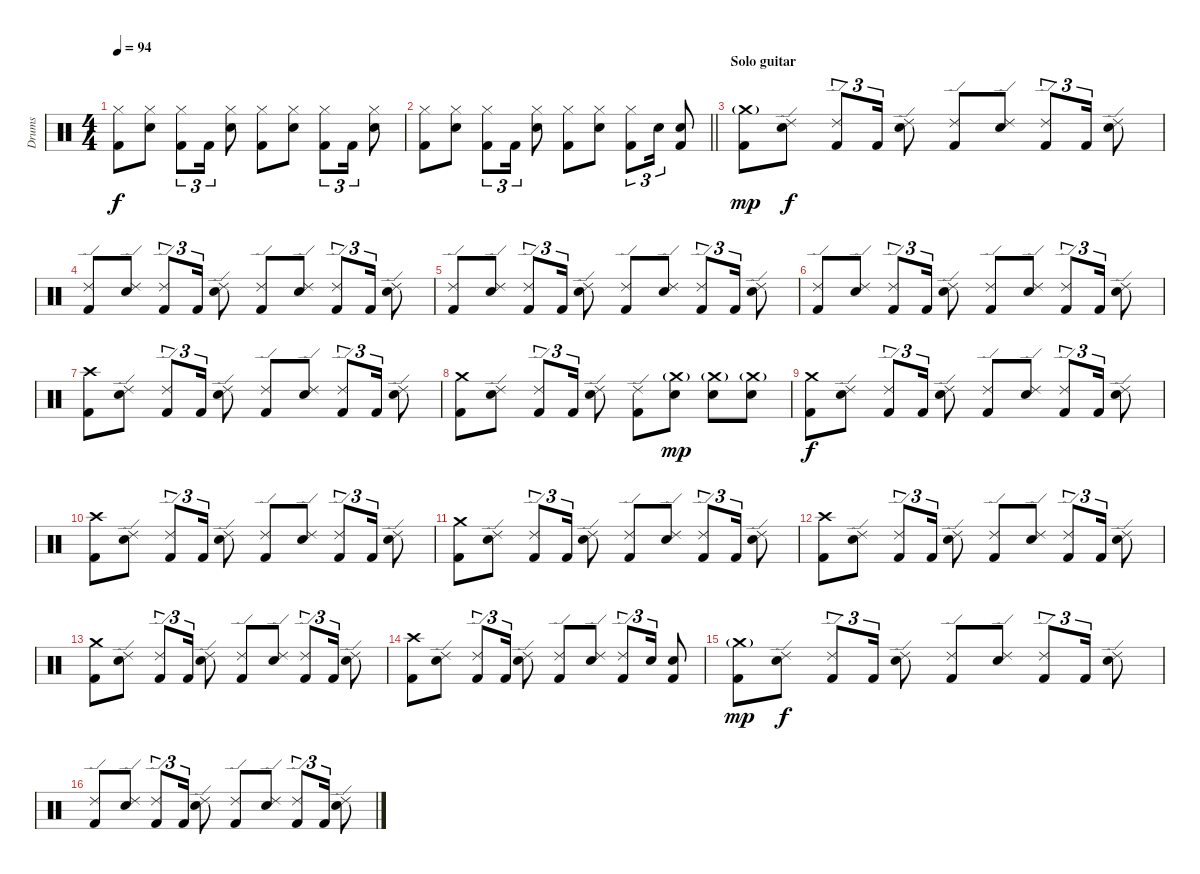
\track ("Drums" "Drums") {instrument percussion}
\staff {score}
\articulation defaults
\ts (4 4)
\tempo 94
\clef neutral
\ks c
("Hi-Hat (closed)" "Kick (hit) 2").8{dy f} ("Hi-Hat (closed)" "Electric Snare (hit)").8 ("Hi-Hat (closed)" "Kick (hit) 2").8{tu (3 2)} "Kick (hit) 2".16{tu (3 2)} ("Hi-Hat (closed)" "Electric Snare (hit)").8 ("Hi-Hat (closed)" "Kick (hit) 2").8 ("Hi-Hat (closed)" "Electric Snare (hit)").8 ("Hi-Hat (closed)" "Kick (hit) 2").8{tu (3 2)} "Kick (hit) 2".16{tu (3 2)} ("Hi-Hat (closed)" "Electric Snare (hit)").8 |
\barLineRight lightlight
("Hi-Hat (closed)" "Kick (hit) 2").8 ("Hi-Hat (closed)" "Electric Snare (hit)").8 ("Hi-Hat (closed)" "Kick (hit) 2").8{tu (3 2)} "Kick (hit) 2".16{tu (3 2)} ("Hi-Hat (closed)" "Electric Snare (hit)").8 ("Hi-Hat (closed)" "Kick (hit) 2").8 ("Hi-Hat (closed)" "Electric Snare (hit)").8 ("Hi-Hat (closed)" "Kick (hit) 2").8{tu (3 2)} "Electric Snare (hit)".16{tu (3 2)} ("Electric Snare (hit)" "Kick (hit) 2").8 |
\section ("" "Solo guitar")
("Crash medium (hit)"{g} "Kick (hit) 2").8{dy mp} ("Ride (edge) 2" "Electric Snare (hit)").8{dy f} ("Ride (edge) 2" "Kick (hit) 2").8{tu (3 2)} "Kick (hit) 2".16{tu (3 2)} ("Ride (edge) 2" "Electric Snare (hit)").8 ("Ride (edge) 2" "Kick (hit) 2").8 ("Ride (edge) 2" "Electric Snare (hit)").8 ("Ride (edge) 2" "Kick (hit) 2").8{tu (3 2)} "Kick (hit) 2".16{tu (3 2)} ("Ride (edge) 2" "Electric Snare (hit)").8 |
("Ride (edge) 2" "Kick (hit) 2").8 ("Ride (edge) 2" "Electric Snare (hit)").8 ("Ride (edge) 2" "Kick (hit) 2").8{tu (3 2)} "Kick (hit) 2".16{tu (3 2)} ("Ride (edge) 2" "Electric Snare (hit)").8 ("Ride (edge) 2" "Kick (hit) 2").8 ("Ride (edge) 2" "Electric Snare (hit)").8 ("Ride (edge) 2" "Kick (hit) 2").8{tu (3 2)} "Kick (hit) 2".16{tu (3 2)} ("Ride (edge) 2" "Electric Snare (hit)").8 |
("Ride (edge) 2" "Kick (hit) 2").8 ("Ride (edge) 2" "Electric Snare (hit)").8 ("Ride (edge) 2" "Kick (hit) 2").8{tu (3 2)} "Kick (hit) 2".16{tu (3 2)} ("Ride (edge) 2" "Electric Snare (hit)").8 ("Ride (edge) 2" "Kick (hit) 2").8 ("Ride (edge) 2" "Electric Snare (hit)").8 ("Ride (edge) 2" "Kick (hit) 2").8{tu (3 2)} "Kick (hit) 2".16{tu (3 2)} ("Ride (edge) 2" "Electric Snare (hit)").8 |
("Ride (edge) 2" "Kick (hit) 2").8 ("Ride (edge) 2" "Electric Snare (hit)").8 ("Ride (edge) 2" "Kick (hit) 2").8{tu (3 2)} "Kick (hit) 2".16{tu (3 2)} ("Ride (edge) 2" "Electric Snare (hit)").8 ("Ride (edge) 2" "Kick (hit) 2").8 ("Ride (edge) 2" "Electric Snare (hit)").8 ("Ride (edge) 2" "Kick (hit) 2").8{tu (3 2)} "Kick (hit) 2".16{tu (3 2)} ("Ride (edge) 2" "Electric Snare (hit)").8 |
("Crash high (hit)" "Kick (hit) 2").8 ("Ride (edge) 2" "Electric Snare (hit)").8 ("Ride (edge) 2" "Kick (hit) 2").8{tu (3 2)} "Kick (hit) 2".16{tu (3 2)} ("Ride (edge) 2" "Electric Snare (hit)").8 ("Ride (edge) 2" "Kick (hit) 2").8 ("Ride (edge) 2" "Electric Snare (hit)").8 ("Ride (edge) 2" "Kick (hit) 2").8{tu (3 2)} "Kick (hit) 2".16{tu (3 2)} ("Ride (edge) 2" "Electric Snare (hit)").8 |
("Crash medium (hit)" "Kick (hit) 2").8 ("Ride (edge) 2" "Electric Snare (hit)").8 ("Ride (edge) 2" "Kick (hit) 2").8{tu (3 2)} "Kick (hit) 2".16{tu (3 2)} ("Ride (edge) 2" "Electric Snare (hit)").8 ("Ride (edge) 2" "Kick (hit) 2").8 ("Crash medium (hit)"{g} "Electric Snare (hit)").8{dy mp} ("Crash medium (hit)"{g} "Electric Snare (hit)").8 ("Crash medium (hit)"{g} "Electric Snare (hit)").8 |
("Crash medium (hit)" "Kick (hit) 2").8{dy f} ("Ride (edge) 2" "Electric Snare (hit)").8 ("Ride (edge) 2" "Kick (hit) 2").8{tu (3 2)} "Kick (hit) 2".16{tu (3 2)} ("Ride (edge) 2" "Electric Snare (hit)").8 ("Ride (edge) 2" "Kick (hit) 2").8 ("Ride (edge) 2" "Electric Snare (hit)").8 ("Ride (edge) 2" "Kick (hit) 2").8{tu (3 2)} "Kick (hit) 2".16{tu (3 2)} ("Ride (edge) 2" "Electric Snare (hit)").8 |
("Crash high (hit)" "Kick (hit) 2").8 ("Ride (edge) 2" "Electric Snare (hit)").8 ("Ride (edge) 2" "Kick (hit) 2").8{tu (3 2)} "Kick (hit) 2".16{tu (3 2)} ("Ride (edge) 2" "Electric Snare (hit)").8 ("Ride (edge) 2" "Kick (hit) 2").8 ("Ride (edge) 2" "Electric Snare (hit)").8 ("Ride (edge) 2" "Kick (hit) 2").8{tu (3 2)} "Kick (hit) 2".16{tu (3 2)} ("Ride (edge) 2" "Electric Snare (hit)").8 |
("Crash medium (hit)" "Kick (hit) 2").8 ("Ride (edge) 2" "Electric Snare (hit)").8 ("Ride (edge) 2" "Kick (hit) 2").8{tu (3 2)} "Kick (hit) 2".16{tu (3 2)} ("Ride (edge) 2" "Electric Snare (hit)").8 ("Ride (edge) 2" "Kick (hit) 2").8 ("Ride (edge) 2" "Electric Snare (hit)").8 ("Ride (edge) 2" "Kick (hit) 2").8{tu (3 2)} "Kick (hit) 2".16{tu (3 2)} ("Ride (edge) 2" "Electric Snare (hit)").8 |
("Crash high (hit)" "Kick (hit) 2").8 ("Ride (edge) 2" "Electric Snare (hit)").8 ("Ride (edge) 2" "Kick (hit) 2").8{tu (3 2)} "Kick (hit) 2".16{tu (3 2)} ("Ride (edge) 2" "Electric Snare (hit)").8 ("Ride (edge) 2" "Kick (hit) 2").8 ("Ride (edge) 2" "Electric Snare (hit)").8 ("Ride (edge) 2" "Kick (hit) 2").8{tu (3 2)} "Kick (hit) 2".16{tu (3 2)} ("Ride (edge) 2" "Electric Snare (hit)").8 |
("Crash medium (hit)" "Kick (hit) 2").8 ("Ride (edge) 2" "Electric Snare (hit)").8 ("Ride (edge) 2" "Kick (hit) 2").8{tu (3 2)} "Kick (hit) 2".16{tu (3 2)} ("Ride (edge) 2" "Electric Snare (hit)").8 ("Ride (edge) 2" "Kick (hit) 2").8 ("Ride (edge) 2" "Electric Snare (hit)").8 ("Ride (edge) 2" "Kick (hit) 2").8{tu (3 2)} "Kick (hit) 2".16{tu (3 2)} ("Ride (edge) 2" "Electric Snare (hit)").8 |
("Crash high (hit)" "Kick (hit) 2").8 ("Ride (edge) 2" "Electric Snare (hit)").8 ("Ride (edge) 2" "Kick (hit) 2").8{tu (3 2)} "Kick (hit) 2".16{tu (3 2)} ("Ride (edge) 2" "Electric Snare (hit)").8 ("Ride (edge) 2" "Kick (hit) 2").8 ("Ride (edge) 2" "Electric Snare (hit)").8 ("Ride (edge) 2" "Kick (hit) 2").8{tu (3 2)} "Electric Snare (hit)".16{tu (3 2)} ("Electric Snare (hit)" "Kick (hit) 2").8 |
("Crash medium (hit)"{g} "Kick (hit) 2").8{dy mp} ("Ride (edge) 2" "Electric Snare (hit)").8{dy f} ("Ride (edge) 2" "Kick (hit) 2").8{tu (3 2)} "Kick (hit) 2".16{tu (3 2)} ("Ride (edge) 2" "Electric Snare (hit)").8 ("Ride (edge) 2" "Kick (hit) 2").8 ("Ride (edge) 2" "Electric Snare (hit)").8 ("Ride (edge) 2" "Kick (hit) 2").8{tu (3 2)} "Kick (hit) 2".16{tu (3 2)} ("Ride (edge) 2" "Electric Snare (hit)").8 |
("Ride (edge) 2" "Kick (hit) 2").8 ("Ride (edge) 2" "Electric Snare (hit)").8 ("Ride (edge) 2" "Kick (hit) 2").8{tu (3 2)} "Kick (hit) 2".16{tu (3 2)} ("Ride (edge) 2" "Electric Snare (hit)").8 ("Ride (edge) 2" "Kick (hit) 2").8 ("Ride (edge) 2" "Electric Snare (hit)").8 ("Ride (edge) 2" "Kick (hit) 2").8{tu (3 2)} "Kick (hit) 2".16{tu (3 2)} ("Ride (edge) 2" "Electric Snare (hit)").8
